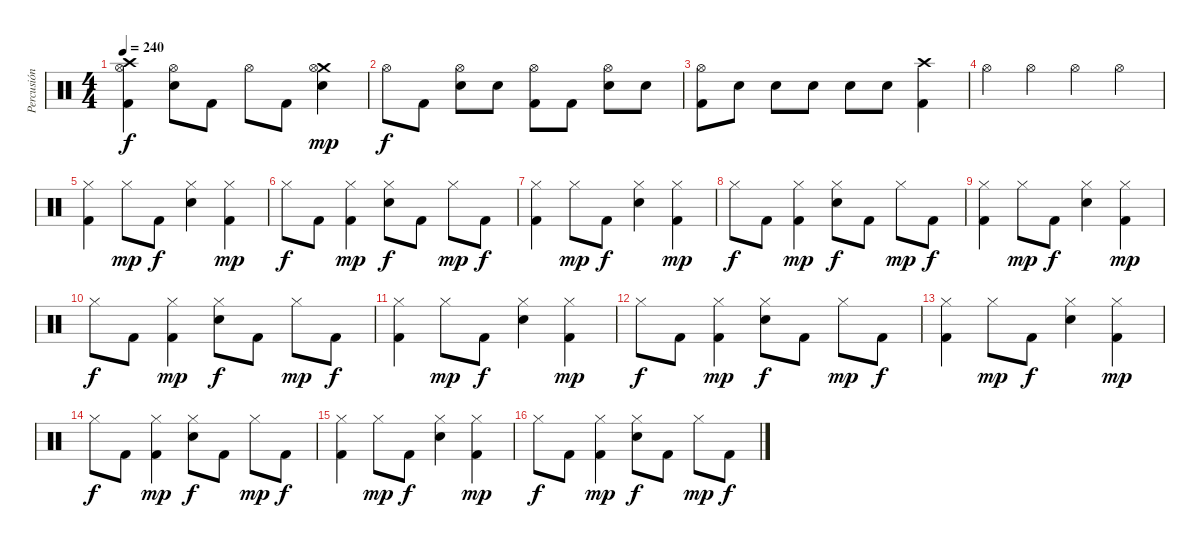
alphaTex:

\track ("Percusión" "Percusión") {instrument percussion}
\staff {score}
\articulation defaults
\ts (4 4)
\tempo 240
\clef neutral
\ks c
("Crash high (hit)" "Hi-Hat (open)" "Kick (hit) 2").4{dy f} ("Hi-Hat (open)" "Snare (hit) 2").8 "Kick (hit) 2".8 "Hi-Hat (open)".8 "Kick (hit) 2".8 ("Crash medium (hit)" "Hi-Hat (open)" "Snare (hit) 2").4{dy mp} |
"Hi-Hat (open)".8{dy f} "Kick (hit) 2".8 ("Hi-Hat (open)" "Snare (hit) 2").8 "Snare (hit) 2".8 ("Hi-Hat (open)" "Kick (hit) 2").8 "Kick (hit) 2".8 ("Hi-Hat (open)" "Snare (hit) 2").8 "Snare (hit) 2".8 |
("Hi-Hat (open)" "Kick (hit) 2").8 "Snare (hit) 2".8 "Snare (hit) 2".8 "Snare (hit) 2".8 "Snare (hit) 2".8 "Snare (hit) 2".8 ("Crash high (hit)" "Kick (hit) 2").4 |
"Hi-Hat (open)".4 "Hi-Hat (open)".4 "Hi-Hat (open)".4 "Hi-Hat (open)".4 |
("Hi-Hat (closed)" "Kick (hit) 2").4 "Hi-Hat (closed)".8{dy mp} "Kick (hit) 2".8{dy f} ("Hi-Hat (closed)" "Snare (hit) 2").4 ("Hi-Hat (closed)" "Kick (hit) 2").4{dy mp} |
"Hi-Hat (closed)".8{dy f} "Kick (hit) 2".8 ("Hi-Hat (closed)" "Kick (hit) 2").4{dy mp} ("Hi-Hat (closed)" "Snare (hit) 2").8{dy f} "Kick (hit) 2".8 "Hi-Hat (closed)".8{dy mp} "Kick (hit) 2".8{dy f} |
("Hi-Hat (closed)" "Kick (hit) 2").4 "Hi-Hat (closed)".8{dy mp} "Kick (hit) 2".8{dy f} ("Hi-Hat (closed)" "Snare (hit) 2").4 ("Hi-Hat (closed)" "Kick (hit) 2").4{dy mp} |
"Hi-Hat (closed)".8{dy f} "Kick (hit) 2".8 ("Hi-Hat (closed)" "Kick (hit) 2").4{dy mp} ("Hi-Hat (closed)" "Snare (hit) 2").8{dy f} "Kick (hit) 2".8 "Hi-Hat (closed)".8{dy mp} "Kick (hit) 2".8{dy f} |
("Hi-Hat (closed)" "Kick (hit) 2").4 "Hi-Hat (closed)".8{dy mp} "Kick (hit) 2".8{dy f} ("Hi-Hat (closed)" "Snare (hit) 2").4 ("Hi-Hat (closed)" "Kick (hit) 2").4{dy mp} |
"Hi-Hat (closed)".8{dy f} "Kick (hit) 2".8 ("Hi-Hat (closed)" "Kick (hit) 2").4{dy mp} ("Hi-Hat (closed)" "Snare (hit) 2").8{dy f} "Kick (hit) 2".8 "Hi-Hat (closed)".8{dy mp} "Kick (hit) 2".8{dy f} |
("Hi-Hat (closed)" "Kick (hit) 2").4 "Hi-Hat (closed)".8{dy mp} "Kick (hit) 2".8{dy f} ("Hi-Hat (closed)" "Snare (hit) 2").4 ("Hi-Hat (closed)" "Kick (hit) 2").4{dy mp} |
"Hi-Hat (closed)".8{dy f} "Kick (hit) 2".8 ("Hi-Hat (closed)" "Kick (hit) 2").4{dy mp} ("Hi-Hat (closed)" "Snare (hit) 2").8{dy f} "Kick (hit) 2".8 "Hi-Hat (closed)".8{dy mp} "Kick (hit) 2".8{dy f} |
("Hi-Hat (closed)" "Kick (hit) 2").4 "Hi-Hat (closed)".8{dy mp} "Kick (hit) 2".8{dy f} ("Hi-Hat (closed)" "Snare (hit) 2").4 ("Hi-Hat (closed)" "Kick (hit) 2").4{dy mp} |
"Hi-Hat (closed)".8{dy f} "Kick (hit) 2".8 ("Hi-Hat (closed)" "Kick (hit) 2").4{dy mp} ("Hi-Hat (closed)" "Snare (hit) 2").8{dy f} "Kick (hit) 2".8 "Hi-Hat (closed)".8{dy mp} "Kick (hit) 2".8{dy f} |
("Hi-Hat (closed)" "Kick (hit) 2").4 "Hi-Hat (closed)".8{dy mp} "Kick (hit) 2".8{dy f} ("Hi-Hat (closed)" "Snare (hit) 2").4 ("Hi-Hat (closed)" "Kick (hit) 2").4{dy mp} |
"Hi-Hat (closed)".8{dy f} "Kick (hit) 2".8 ("Hi-Hat (closed)" "Kick (hit) 2").4{dy mp} ("Hi-Hat (closed)" "Snare (hit) 2").8{dy f} "Kick (hit) 2".8 "Hi-Hat (closed)".8{dy mp} "Kick (hit) 2".8{dy f}
